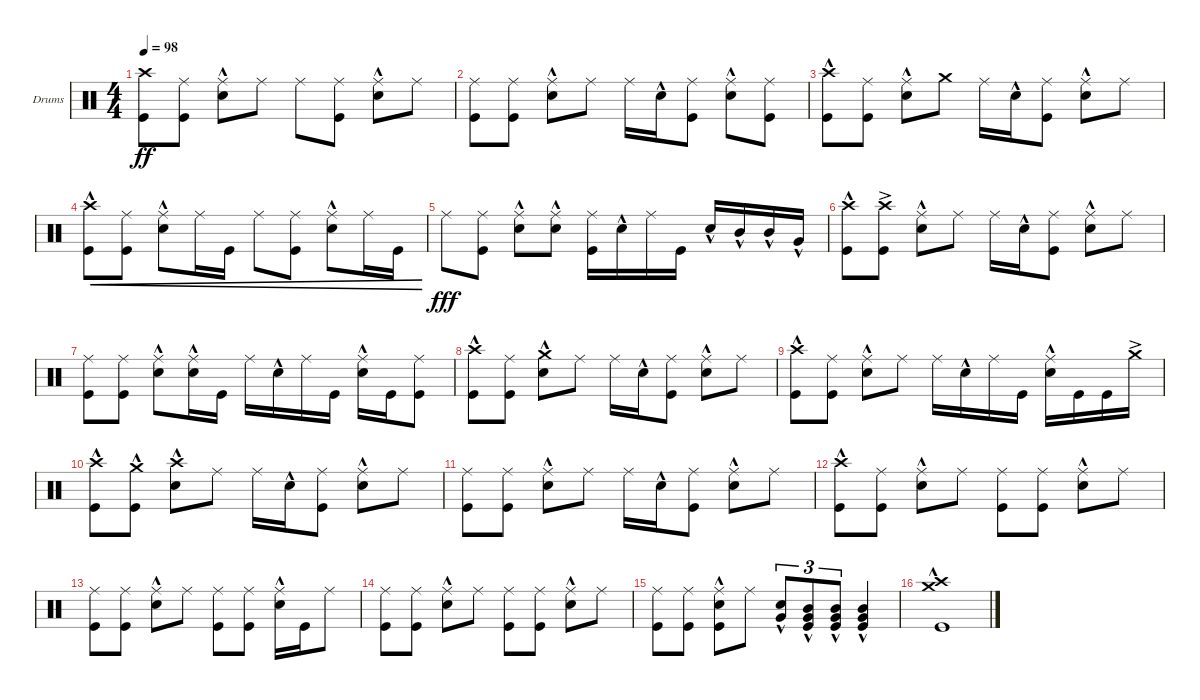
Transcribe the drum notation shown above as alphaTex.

\defaultSystemsLayout 4
\bracketExtendMode groupsimilarinstruments
\firstSystemTrackNameOrientation horizontal
\otherSystemsTrackNameOrientation horizontal
\track ("Drumkit (Chad Smith)" "Drums") {instrument percussion}
\staff {score}
\articulation defaults
\ts (4 4)
\tempo 98
\clef neutral
\scale
0.333333
\ks c
("Kick (hit)" "Crash high (hit)").8{dy ff} ("Kick (hit)" "Ride (middle)").8 ("Snare (hit) 2"{hac} "Ride (middle)").8 "Ride (middle)".8 "Ride (middle)".8 ("Kick (hit)" "Ride (middle)").8 ("Snare (hit) 2"{hac} "Ride (middle)").8 "Ride (middle)".8 |
\scale
0.333333 ("Kick (hit)" "Ride (middle)").8 ("Kick (hit)" "Ride (middle)").8 ("Snare (hit) 2"{hac} "Ride (middle)").8 "Ride (middle)".8 "Ride (middle)".16 "Snare (hit) 2"{hac}.16 ("Kick (hit)" "Ride (middle)").8 ("Snare (hit) 2"{hac} "Ride (middle)").8 ("Ride (middle)" "Kick (hit)").8 |
\scale
0.333333 ("Kick (hit)" "Crash high (hit)"{hac}).8 ("Kick (hit)" "Ride (middle)").8 ("Snare (hit) 2"{hac} "Ride (middle)").8 "Crash medium (hit)".8 "Ride (middle)".16 "Snare (hit) 2"{hac}.16 ("Kick (hit)" "Ride (middle)").8 ("Snare (hit) 2"{hac} "Ride (middle)").8 "Ride (middle)".8 |
\scale
0.333333 ("Kick (hit)" "Crash high (hit)"{hac}).8{cre} ("Kick (hit)" "Ride (middle)").8{cre} ("Snare (hit) 2"{hac} "Ride (middle)").8{cre} "Ride (middle)".16{cre} "Kick (hit)".16{cre} "Ride (middle)".8{cre} ("Kick (hit)" "Ride (middle)").8{cre} ("Snare (hit) 2"{hac} "Ride (middle)").8{cre} "Ride (middle)".16{cre} "Kick (hit)".16{cre} |
\scale
0.333333 "Ride (middle)".8{dy fff} ("Kick (hit)" "Ride (middle)").8 ("Snare (hit) 2"{hac} "Ride (middle)").8 ("Ride (middle)" "Snare (hit) 2"{hac}).8 ("Ride (middle)" "Kick (hit)").16 "Snare (hit) 2"{hac}.16 "Ride (middle)".16 "Kick (hit)".16 "Snare (hit) 2"{hac}.16 "Mid Tom (hit)"{hac}.16 "Mid Tom (hit)"{hac}.16 "Very Low Tom (hit)"{hac}.16 |
\scale
0.333333 ("Kick (hit)" "Crash high (hit)"{hac}).8 ("Kick (hit)" "Crash high (hit)"{ac}).8 ("Snare (hit) 2"{hac} "Ride (middle)").8 "Ride (middle)".8 "Ride (middle)".16 "Snare (hit) 2"{hac}.16 ("Kick (hit)" "Ride (middle)").8 ("Snare (hit) 2"{hac} "Ride (middle)").8 "Ride (middle)".8 |
\scale
0.333333 ("Ride (middle)" "Kick (hit)").8 ("Kick (hit)" "Ride (middle)").8 ("Snare (hit) 2"{hac} "Ride (middle)").8 ("Ride (middle)" "Snare (hit) 2"{hac}).16 "Kick (hit)".16 "Ride (middle)".16 "Snare (hit) 2"{hac}.16 "Ride (middle)".16 "Kick (hit)".16 ("Snare (hit) 2"{hac} "Ride (middle)").16 "Kick (hit)".16 ("Kick (hit)" "Ride (middle)").8 |
\scale
0.333333 ("Kick (hit)" "Crash high (hit)"{hac}).8 ("Kick (hit)" "Ride (middle)").8 ("Snare (hit) 2"{hac} "Crash medium (hit)"{hac}).8 "Ride (middle)".8 "Ride (middle)".16 "Snare (hit) 2"{hac}.16 ("Kick (hit)" "Ride (middle)").8 ("Snare (hit) 2"{hac} "Ride (middle)").8 "Ride (middle)".8 |
\scale
0.333333 ("Kick (hit)" "Crash high (hit)"{hac}).8 ("Kick (hit)" "Ride (middle)").8 ("Snare (hit) 2"{hac} "Ride (middle)").8 "Ride (middle)".8 "Ride (middle)".16 "Snare (hit) 2"{hac}.16 "Ride (middle)".16 "Kick (hit)".16 ("Snare (hit) 2"{hac} "Ride (middle)").16 "Kick (hit)".16 "Kick (hit)".16 "Crash medium (hit)"{ac}.16 |
\scale
0.333333 ("Kick (hit)" "Crash high (hit)"{hac}).8 ("Kick (hit)" "Crash medium (hit)"{hac}).8 ("Snare (hit) 2"{hac} "Crash high (hit)"{hac}).8 "Ride (middle)".8 "Ride (middle)".16 "Snare (hit) 2"{hac}.16 ("Kick (hit)" "Ride (middle)").8 ("Snare (hit) 2"{hac} "Ride (middle)").8 "Ride (middle)".8 |
\scale
0.333333 ("Kick (hit)" "Ride (middle)").8 ("Kick (hit)" "Ride (middle)").8 ("Snare (hit) 2"{hac} "Ride (middle)").8 "Ride (middle)".8 "Ride (middle)".16 "Snare (hit) 2"{hac}.16 ("Kick (hit)" "Ride (middle)").8 ("Snare (hit) 2"{hac} "Ride (middle)").8 "Ride (middle)".8 |
\scale
0.333333 ("Kick (hit)" "Crash high (hit)"{hac}).8 ("Kick (hit)" "Ride (middle)").8 ("Snare (hit) 2"{hac} "Ride (middle)").8 "Ride (middle)".8 ("Ride (middle)" "Kick (hit)").8 ("Kick (hit)" "Ride (middle)").8 ("Snare (hit) 2"{hac} "Ride (middle)").8 "Ride (middle)".8 |
\scale
0.333333 ("Kick (hit)" "Ride (middle)").8 ("Kick (hit)" "Ride (middle)").8 ("Snare (hit) 2"{hac} "Ride (middle)").8 "Ride (middle)".8 ("Ride (middle)" "Kick (hit)").8 ("Kick (hit)" "Ride (middle)").8 ("Snare (hit) 2"{hac} "Ride (middle)").16 "Kick (hit)".16 "Ride (middle)".8 |
("Ride (middle)" "Kick (hit)").8 ("Kick (hit)" "Ride (middle)").8 ("Snare (hit) 2"{hac} "Ride (middle)").8 "Ride (middle)".8 ("Ride (middle)" "Kick (hit)").8 ("Kick (hit)" "Ride (middle)").8 ("Snare (hit) 2"{hac} "Ride (middle)").8 "Ride (middle)".8 |
("Ride (middle)" "Kick (hit)").8 ("Kick (hit)" "Ride (middle)").8 ("Snare (hit) 2"{hac} "Ride (middle)" "Kick (hit)").8 "Ride (middle)".8 ("Snare (hit) 2"{hac} "Very Low Tom (hit)"{hac}).8{tu (3 2)} ("Very Low Tom (hit)"{hac} "Mid Tom (hit)"{hac} "Kick (hit)"{hac}).8{tu (3 2)} ("Very Low Tom (hit)"{hac} "Mid Tom (hit)"{hac} "Kick (hit)"{hac}).8{tu (3 2)} ("Very Low Tom (hit)"{hac} "Mid Tom (hit)"{hac} "Kick (hit)"{hac}).4 |
("Kick (hit)"{hac} "Crash medium (hit)"{hac} "Crash high (hit)"{hac}).1
